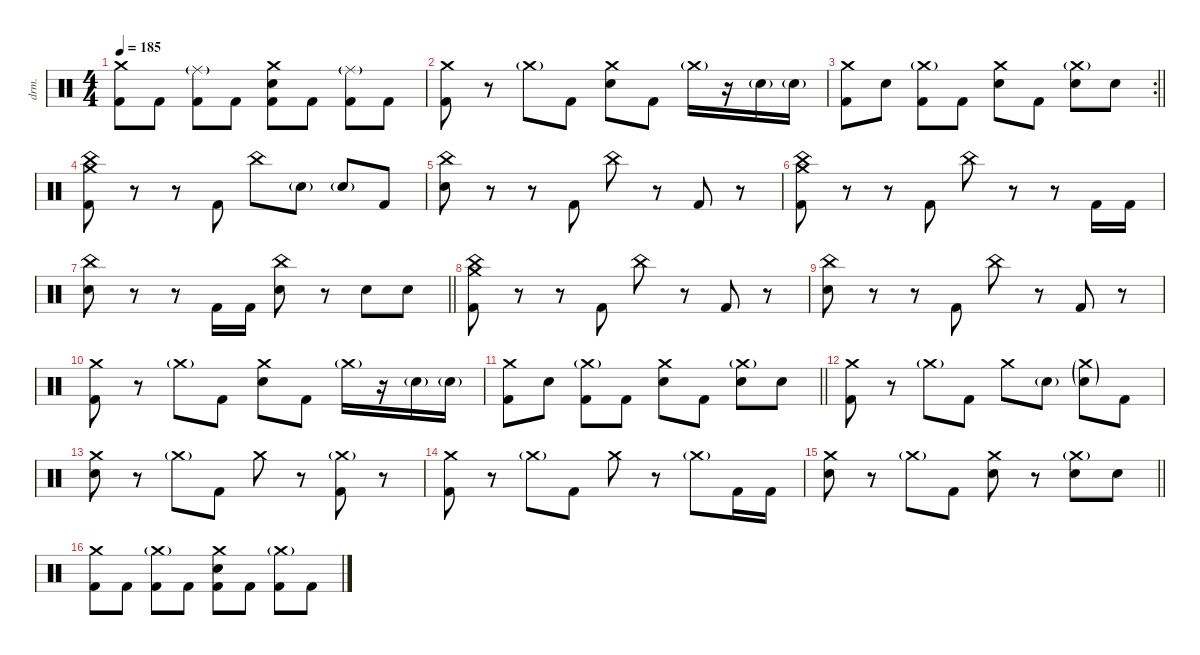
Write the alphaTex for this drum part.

\defaultSystemsLayout 4
\hideDynamics
\bracketExtendMode nobrackets
\track ("Drums - Šimon" "drm.") {instrument percussion}
\staff {score}
\articulation defaults
\ts (4 4)
\tempo 185
\clef neutral
\ks c
("Crash medium (hit)" "Kick (hit) 2").8{dy ff beam Down} "Kick (hit) 2".8{beam Down} ("Kick (hit) 2" "Ride (middle)"{g}).8{beam Down} "Kick (hit) 2".8{beam Down} ("Snare (hit) 2" "Crash medium (hit)" "Kick (hit) 2").8{beam Down} "Kick (hit) 2".8{beam Down} ("Kick (hit) 2" "Ride (middle)"{g}).8{beam Down} "Kick (hit) 2".8{beam Down} |
("Kick (hit) 2" "Crash medium (hit)").8{beam Down} r.8{beam Down} "Crash medium (hit)"{g}.8{beam Down} "Kick (hit) 2".8{beam Down} ("Snare (hit) 2" "Crash medium (hit)").8{beam Down} "Kick (hit) 2".8{beam Down} "Crash medium (hit)"{g}.16{beam Down} r.16{beam Down} "Snare (hit) 2"{g}.16{beam Down} "Snare (hit) 2"{g}.16{beam Down} |
\rc 2
\barLineRight lightlight
("Crash medium (hit)" "Kick (hit) 2").8{beam Down} "Snare (hit) 2".8{beam Down} ("Kick (hit) 2" "Crash medium (hit)"{g}).8{beam Down} "Kick (hit) 2".8{beam Down} ("Snare (hit) 2" "Crash medium (hit)").8{beam Down} "Kick (hit) 2".8{beam Down} ("Crash medium (hit)"{g} "Snare (hit) 2").8{beam Down} "Snare (hit) 2".8{beam Down} |
("Kick (hit) 2" "Crash medium (hit)" "China (hit)").8{beam Down} r.8{beam Down} r.8{beam Down} "Kick (hit) 2".8{beam Up} "China (hit)".8{beam Down} "Snare (hit) 2"{g}.8{beam Down} "Snare (hit) 2"{g}.8{beam Up} "Kick (hit) 2".8{beam Up} |
("Snare (hit) 2" "China (hit)").8{beam Down} r.8{beam Down} r.8{beam Down} "Kick (hit) 2".8{beam Up} "China (hit)".8{beam Down} r.8{beam Down} "Kick (hit) 2".8{beam Up} r.8{beam Down} |
("Kick (hit) 2" "China (hit)" "Crash medium (hit)").8{beam Down} r.8{beam Down} r.8{beam Down} "Kick (hit) 2".8{beam Up} "China (hit)".8{beam Down} r.8{beam Down} r.8{beam Down} "Kick (hit) 2".16{beam Up} "Kick (hit) 2".16{beam Up} |
\barLineRight lightlight
("Snare (hit) 2" "China (hit)").8{beam Down} r.8{beam Down} r.8{beam Down} "Kick (hit) 2".16{beam Up} "Kick (hit) 2".16{beam Up} ("Snare (hit) 2" "China (hit)").8{beam Down} r.8{beam Down} "Snare (hit) 2".8{beam Down} "Snare (hit) 2".8{beam Down} |
("Kick (hit) 2" "Crash medium (hit)" "China (hit)").8{beam Down} r.8{beam Down} r.8{beam Down} "Kick (hit) 2".8{beam Up} "China (hit)".8{beam Down} r.8{beam Down} "Kick (hit) 2".8{beam Up} r.8{beam Down} |
("Snare (hit) 2" "China (hit)").8{beam Down} r.8{beam Down} r.8{beam Down} "Kick (hit) 2".8{beam Up} "China (hit)".8{beam Down} r.8{beam Down} "Kick (hit) 2".8{beam Up} r.8{beam Down} |
("Kick (hit) 2" "Crash medium (hit)").8{beam Down} r.8{beam Down} "Crash medium (hit)"{g}.8{beam Down} "Kick (hit) 2".8{beam Down} ("Snare (hit) 2" "Crash medium (hit)").8{beam Down} "Kick (hit) 2".8{beam Down} "Crash medium (hit)"{g}.16{beam Down} r.16{beam Down} "Snare (hit) 2"{g}.16{beam Down} "Snare (hit) 2"{g}.16{beam Down} |
\barLineRight lightlight
("Crash medium (hit)" "Kick (hit) 2").8{beam Down} "Snare (hit) 2".8{beam Down} ("Kick (hit) 2" "Crash medium (hit)"{g}).8{beam Down} "Kick (hit) 2".8{beam Down} ("Snare (hit) 2" "Crash medium (hit)").8{beam Down} "Kick (hit) 2".8{beam Down} ("Crash medium (hit)"{g} "Snare (hit) 2").8{beam Down} "Snare (hit) 2".8{beam Down} |
("Kick (hit) 2" "Crash medium (hit)").8{beam Down} r.8{beam Down} "Crash medium (hit)"{g}.8{beam Down} "Kick (hit) 2".8{beam Down} "Crash medium (hit)".8{beam Down} "Snare (hit) 2"{g}.8{beam Down} ("Crash medium (hit)"{g} "Snare (hit) 2"{g}).8{beam Down} "Kick (hit) 2".8{beam Down} |
("Snare (hit) 2" "Crash medium (hit)").8{beam Down} r.8{beam Down} "Crash medium (hit)"{g}.8{beam Down} "Kick (hit) 2".8{beam Down} "Crash medium (hit)".8{beam Down} r.8{beam Down} ("Kick (hit) 2" "Crash medium (hit)"{g}).8{beam Down} r.8{beam Down} |
("Kick (hit) 2" "Crash medium (hit)").8{beam Down} r.8{beam Down} "Crash medium (hit)"{g}.8{beam Down} "Kick (hit) 2".8{beam Down} "Crash medium (hit)".8{beam Down} r.8{beam Down} "Crash medium (hit)"{g}.8{beam Down} "Kick (hit) 2".16{beam Down} "Kick (hit) 2".16{beam Down} |
\barLineRight lightlight
("Snare (hit) 2" "Crash medium (hit)").8{beam Down} r.8{beam Down} "Crash medium (hit)"{g}.8{beam Down} "Kick (hit) 2".8{beam Down} ("Snare (hit) 2" "Crash medium (hit)").8{beam Down} r.8{beam Down} ("Snare (hit) 2" "Crash medium (hit)"{g}).8{beam Down} "Snare (hit) 2".8{beam Down} |
("Kick (hit) 2" "Crash medium (hit)").8{beam Down} "Kick (hit) 2".8{beam Down} ("Crash medium (hit)"{g} "Kick (hit) 2").8{beam Down} "Kick (hit) 2".8{beam Down} ("Crash medium (hit)" "Kick (hit) 2" "Snare (hit) 2").8{beam Down} "Kick (hit) 2".8{beam Down} ("Kick (hit) 2" "Crash medium (hit)"{g}).8{beam Down} "Kick (hit) 2".8{beam Down}
